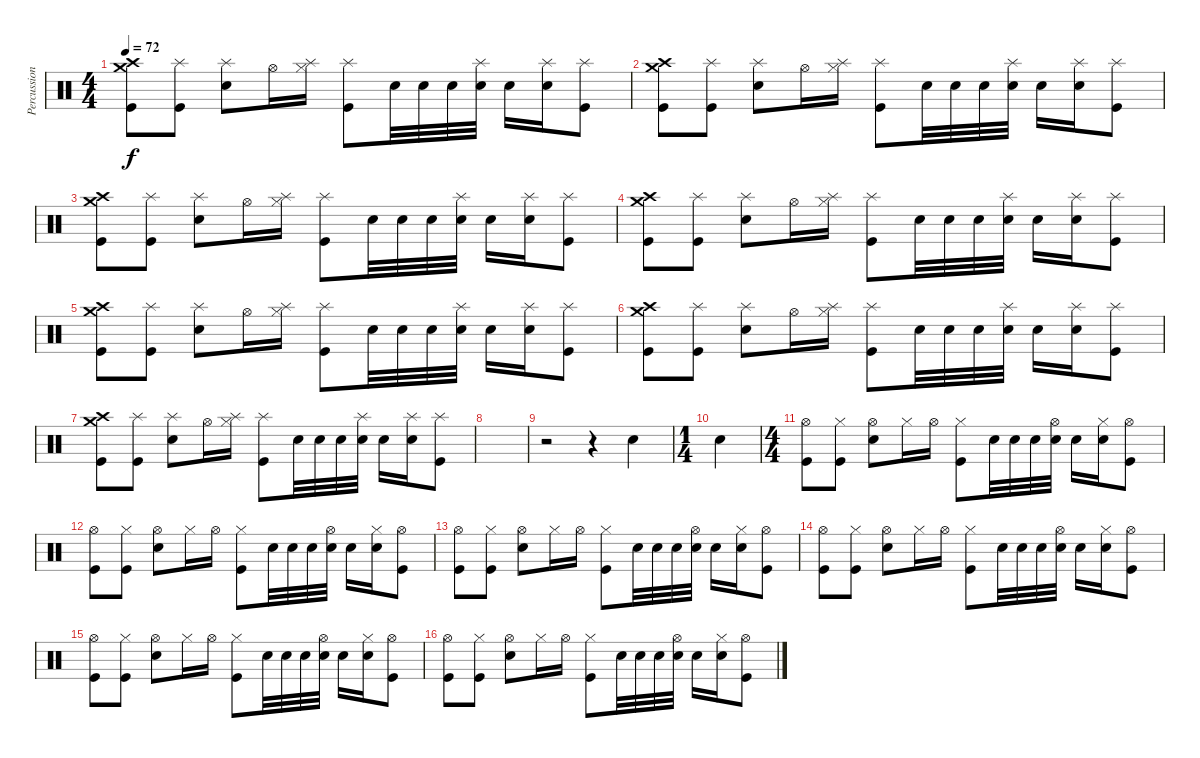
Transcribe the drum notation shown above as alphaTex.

\track ("Percussions" "Percussion") {instrument percussion}
\staff {score}
\articulation defaults
\ts (4 4)
\tempo 72
\clef neutral
\ks c
("Crash medium (hit)" "Crash high (hit)" "Kick (hit)").8{dy f} ("Splash (hit)" "Kick (hit)").8 ("Splash (hit)" "Electric Snare (hit)").8 "Hi-Hat (open)".16 ("Hi-Hat (closed)" "Splash (hit)").16 ("Splash (hit)" "Kick (hit)").8 "Electric Snare (hit)".32 "Electric Snare (hit)".32 "Electric Snare (hit)".32 ("Splash (hit)" "Electric Snare (hit)").32 "Electric Snare (hit)".16 ("Splash (hit)" "Electric Snare (hit)").16 ("Splash (hit)" "Kick (hit)").8 |
("Crash medium (hit)" "Crash high (hit)" "Kick (hit)").8 ("Splash (hit)" "Kick (hit)").8 ("Splash (hit)" "Electric Snare (hit)").8 "Hi-Hat (open)".16 ("Hi-Hat (closed)" "Splash (hit)").16 ("Splash (hit)" "Kick (hit)").8 "Electric Snare (hit)".32 "Electric Snare (hit)".32 "Electric Snare (hit)".32 ("Splash (hit)" "Electric Snare (hit)").32 "Electric Snare (hit)".16 ("Splash (hit)" "Electric Snare (hit)").16 ("Splash (hit)" "Kick (hit)").8 |
("Crash medium (hit)" "Crash high (hit)" "Kick (hit)").8 ("Splash (hit)" "Kick (hit)").8 ("Splash (hit)" "Electric Snare (hit)").8 "Hi-Hat (open)".16 ("Hi-Hat (closed)" "Splash (hit)").16 ("Splash (hit)" "Kick (hit)").8 "Electric Snare (hit)".32 "Electric Snare (hit)".32 "Electric Snare (hit)".32 ("Splash (hit)" "Electric Snare (hit)").32 "Electric Snare (hit)".16 ("Splash (hit)" "Electric Snare (hit)").16 ("Splash (hit)" "Kick (hit)").8 |
("Crash medium (hit)" "Crash high (hit)" "Kick (hit)").8 ("Splash (hit)" "Kick (hit)").8 ("Splash (hit)" "Electric Snare (hit)").8 "Hi-Hat (open)".16 ("Hi-Hat (closed)" "Splash (hit)").16 ("Splash (hit)" "Kick (hit)").8 "Electric Snare (hit)".32 "Electric Snare (hit)".32 "Electric Snare (hit)".32 ("Splash (hit)" "Electric Snare (hit)").32 "Electric Snare (hit)".16 ("Splash (hit)" "Electric Snare (hit)").16 ("Splash (hit)" "Kick (hit)").8 |
("Crash medium (hit)" "Crash high (hit)" "Kick (hit)").8 ("Splash (hit)" "Kick (hit)").8 ("Splash (hit)" "Electric Snare (hit)").8 "Hi-Hat (open)".16 ("Hi-Hat (closed)" "Splash (hit)").16 ("Splash (hit)" "Kick (hit)").8 "Electric Snare (hit)".32 "Electric Snare (hit)".32 "Electric Snare (hit)".32 ("Splash (hit)" "Electric Snare (hit)").32 "Electric Snare (hit)".16 ("Splash (hit)" "Electric Snare (hit)").16 ("Splash (hit)" "Kick (hit)").8 |
("Crash medium (hit)" "Crash high (hit)" "Kick (hit)").8 ("Splash (hit)" "Kick (hit)").8 ("Splash (hit)" "Electric Snare (hit)").8 "Hi-Hat (open)".16 ("Hi-Hat (closed)" "Splash (hit)").16 ("Splash (hit)" "Kick (hit)").8 "Electric Snare (hit)".32 "Electric Snare (hit)".32 "Electric Snare (hit)".32 ("Splash (hit)" "Electric Snare (hit)").32 "Electric Snare (hit)".16 ("Splash (hit)" "Electric Snare (hit)").16 ("Splash (hit)" "Kick (hit)").8 |
("Crash medium (hit)" "Crash high (hit)" "Kick (hit)").8 ("Splash (hit)" "Kick (hit)").8 ("Splash (hit)" "Electric Snare (hit)").8 "Hi-Hat (open)".16 ("Hi-Hat (closed)" "Splash (hit)").16 ("Splash (hit)" "Kick (hit)").8 "Electric Snare (hit)".32 "Electric Snare (hit)".32 "Electric Snare (hit)".32 ("Splash (hit)" "Electric Snare (hit)").32 "Electric Snare (hit)".16 ("Splash (hit)" "Electric Snare (hit)").16 ("Splash (hit)" "Kick (hit)").8 |
|
r.2 r.4 "Hand Clap (hit)".4{balance 0} |
\ts (1 4)
"Hand Clap (hit)".4{balance 16} |
\ts (4 4)
("Hi-Hat (open)" "Kick (hit)").8{balance 8} ("Hi-Hat (closed)" "Kick (hit)").8 ("Hi-Hat (open)" "Electric Snare (hit)").8 "Hi-Hat (closed)".16 "Hi-Hat (open)".16 ("Hi-Hat (closed)" "Kick (hit)").8 "Electric Snare (hit)".32 "Electric Snare (hit)".32 "Electric Snare (hit)".32 ("Hi-Hat (open)" "Electric Snare (hit)").32 "Electric Snare (hit)".16 ("Hi-Hat (closed)" "Electric Snare (hit)").16 ("Hi-Hat (open)" "Kick (hit)").8 |
("Hi-Hat (open)" "Kick (hit)").8 ("Hi-Hat (closed)" "Kick (hit)").8 ("Hi-Hat (open)" "Electric Snare (hit)").8 "Hi-Hat (closed)".16 "Hi-Hat (open)".16 ("Hi-Hat (closed)" "Kick (hit)").8 "Electric Snare (hit)".32 "Electric Snare (hit)".32 "Electric Snare (hit)".32 ("Hi-Hat (open)" "Electric Snare (hit)").32 "Electric Snare (hit)".16 ("Hi-Hat (closed)" "Electric Snare (hit)").16 ("Hi-Hat (open)" "Kick (hit)").8 |
("Hi-Hat (open)" "Kick (hit)").8 ("Hi-Hat (closed)" "Kick (hit)").8 ("Hi-Hat (open)" "Electric Snare (hit)").8 "Hi-Hat (closed)".16 "Hi-Hat (open)".16 ("Hi-Hat (closed)" "Kick (hit)").8 "Electric Snare (hit)".32 "Electric Snare (hit)".32 "Electric Snare (hit)".32 ("Hi-Hat (open)" "Electric Snare (hit)").32 "Electric Snare (hit)".16 ("Hi-Hat (closed)" "Electric Snare (hit)").16 ("Hi-Hat (open)" "Kick (hit)").8 |
("Hi-Hat (open)" "Kick (hit)").8 ("Hi-Hat (closed)" "Kick (hit)").8 ("Hi-Hat (open)" "Electric Snare (hit)").8 "Hi-Hat (closed)".16 "Hi-Hat (open)".16 ("Hi-Hat (closed)" "Kick (hit)").8 "Electric Snare (hit)".32 "Electric Snare (hit)".32 "Electric Snare (hit)".32 ("Hi-Hat (open)" "Electric Snare (hit)").32 "Electric Snare (hit)".16 ("Hi-Hat (closed)" "Electric Snare (hit)").16 ("Hi-Hat (open)" "Kick (hit)").8 |
("Hi-Hat (open)" "Kick (hit)").8 ("Hi-Hat (closed)" "Kick (hit)").8 ("Hi-Hat (open)" "Electric Snare (hit)").8 "Hi-Hat (closed)".16 "Hi-Hat (open)".16 ("Hi-Hat (closed)" "Kick (hit)").8 "Electric Snare (hit)".32 "Electric Snare (hit)".32 "Electric Snare (hit)".32 ("Hi-Hat (open)" "Electric Snare (hit)").32 "Electric Snare (hit)".16 ("Hi-Hat (closed)" "Electric Snare (hit)").16 ("Hi-Hat (open)" "Kick (hit)").8 |
("Hi-Hat (open)" "Kick (hit)").8 ("Hi-Hat (closed)" "Kick (hit)").8 ("Hi-Hat (open)" "Electric Snare (hit)").8 "Hi-Hat (closed)".16 "Hi-Hat (open)".16 ("Hi-Hat (closed)" "Kick (hit)").8 "Electric Snare (hit)".32 "Electric Snare (hit)".32 "Electric Snare (hit)".32 ("Hi-Hat (open)" "Electric Snare (hit)").32 "Electric Snare (hit)".16 ("Hi-Hat (closed)" "Electric Snare (hit)").16 ("Hi-Hat (open)" "Kick (hit)").8
